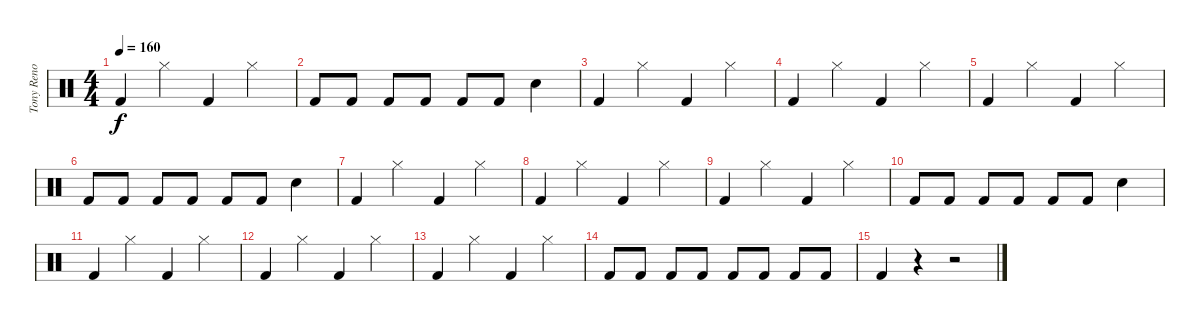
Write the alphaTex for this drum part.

\track ("Tony Reno" "Tony Reno") {instrument percussion}
\staff {score}
\articulation defaults
\ts (4 4)
\tempo 160
\clef neutral
\ks c "Kick (hit) 2".4{dy f} "Hi-Hat (closed)".4 "Kick (hit) 2".4 "Hi-Hat (closed)".4
|
"Kick (hit) 2".8 "Kick (hit) 2".8 "Kick (hit) 2".8 "Kick (hit) 2".8 "Kick (hit) 2".8 "Kick (hit) 2".8 "Snare (hit) 2".4 |
"Kick (hit) 2".4 "Hi-Hat (closed)".4 "Kick (hit) 2".4 "Hi-Hat (closed)".4 |
"Kick (hit) 2".4 "Hi-Hat (closed)".4 "Kick (hit) 2".4 "Hi-Hat (closed)".4 |
"Kick (hit) 2".4 "Hi-Hat (closed)".4 "Kick (hit) 2".4 "Hi-Hat (closed)".4 |
"Kick (hit) 2".8 "Kick (hit) 2".8 "Kick (hit) 2".8 "Kick (hit) 2".8 "Kick (hit) 2".8 "Kick (hit) 2".8 "Snare (hit) 2".4 |
"Kick (hit) 2".4 "Hi-Hat (closed)".4 "Kick (hit) 2".4 "Hi-Hat (closed)".4 |
"Kick (hit) 2".4 "Hi-Hat (closed)".4 "Kick (hit) 2".4 "Hi-Hat (closed)".4 |
"Kick (hit) 2".4 "Hi-Hat (closed)".4 "Kick (hit) 2".4 "Hi-Hat (closed)".4 |
"Kick (hit) 2".8 "Kick (hit) 2".8 "Kick (hit) 2".8 "Kick (hit) 2".8 "Kick (hit) 2".8 "Kick (hit) 2".8 "Snare (hit) 2".4 |
"Kick (hit) 2".4 "Hi-Hat (closed)".4 "Kick (hit) 2".4 "Hi-Hat (closed)".4 |
"Kick (hit) 2".4 "Hi-Hat (closed)".4 "Kick (hit) 2".4 "Hi-Hat (closed)".4 |
"Kick (hit) 2".4 "Hi-Hat (closed)".4 "Kick (hit) 2".4 "Hi-Hat (closed)".4 |
"Kick (hit) 2".8 "Kick (hit) 2".8 "Kick (hit) 2".8 "Kick (hit) 2".8 "Kick (hit) 2".8 "Kick (hit) 2".8 "Kick (hit) 2".8 "Kick (hit) 2".8 |
"Kick (hit) 2".4 r.4 r.2
